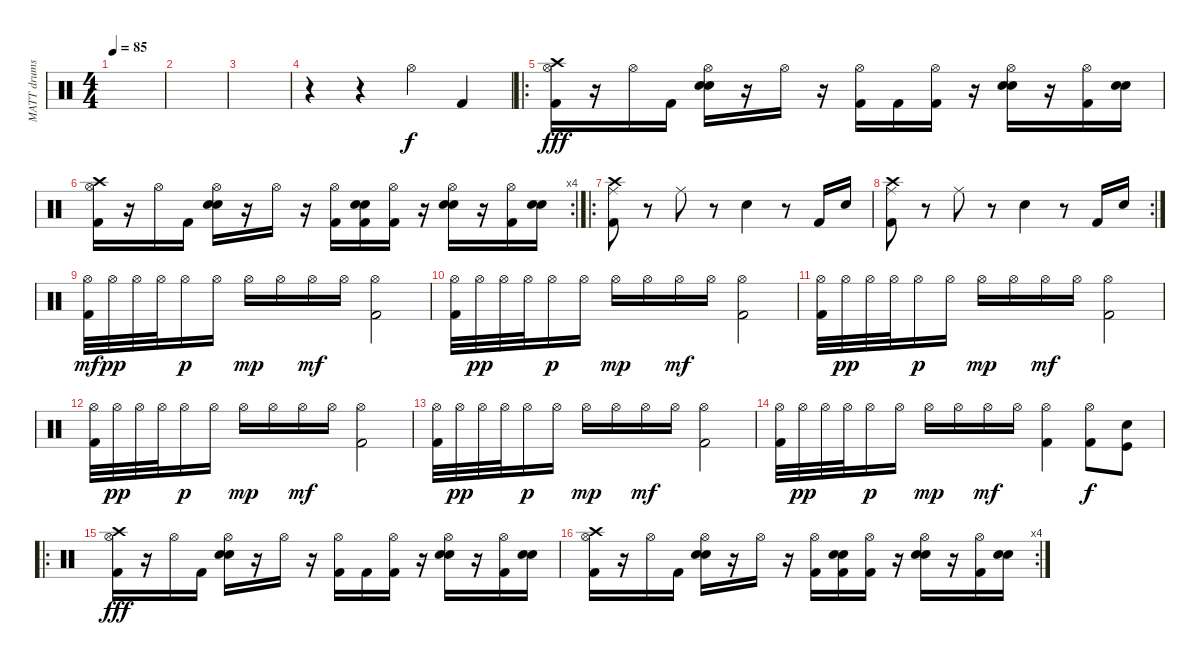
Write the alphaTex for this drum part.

\track ("MATT drums" "MATT drums") {instrument percussion}
\staff {score}
\articulation defaults
\ts (4 4)
\tempo 85
\clef neutral
\ks c
|
|
|
r.4 r.4 "Hi-Hat (open)".4 "Kick (hit) 2".4 |
\ro
("Crash high (hit)" "Hi-Hat (open)" "Kick (hit) 2").16{dy fff} r.16 "Hi-Hat (open)".16 "Kick (hit) 2".16 ("Hi-Hat (open)" "Electric Snare (hit)" "Snare (hit) 2").16 r.16 "Hi-Hat (open)".16 r.16 ("Hi-Hat (open)" "Kick (hit) 2").16 "Kick (hit) 2".16 ("Hi-Hat (open)" "Kick (hit) 2").16 r.16 ("Hi-Hat (open)" "Electric Snare (hit)" "Snare (hit) 2").16 r.16 ("Hi-Hat (open)" "Kick (hit) 2").16 ("Electric Snare (hit)" "Snare (hit) 2").16 |
\rc 4
("Crash high (hit)" "Hi-Hat (open)" "Kick (hit) 2").16 r.16 "Hi-Hat (open)".16 "Kick (hit) 2".16 ("Hi-Hat (open)" "Electric Snare (hit)" "Snare (hit) 2").16 r.16 "Hi-Hat (open)".16 r.16 ("Hi-Hat (open)" "Kick (hit) 2").16 ("Electric Snare (hit)" "Snare (hit) 2" "Kick (hit) 2").16 ("Hi-Hat (open)" "Kick (hit) 2").16 r.16 ("Hi-Hat (open)" "Electric Snare (hit)" "Snare (hit) 2").16 r.16 ("Hi-Hat (open)" "Kick (hit) 2").16 ("Electric Snare (hit)" "Snare (hit) 2").16 |
\ro
("Ride (middle)" "Crash high (hit)" "Kick (hit) 2").8 r.8 "Ride (middle)".8 r.8 "Snare (hit) 2".4 r.8 "Kick (hit) 2".16 "Snare (hit) 2".16 |
\rc 2
("Ride (middle)" "Crash high (hit)" "Kick (hit) 2").8 r.8 "Ride (middle)".8 r.8 "Snare (hit) 2".4 r.8 "Kick (hit) 2".16 "Snare (hit) 2".16 |
("Hi-Hat (open)" "Kick (hit) 2").32{dy mf} "Hi-Hat (open)".32{dy pp} "Hi-Hat (open)".32 "Hi-Hat (open)".32 "Hi-Hat (open)".16{dy p} "Hi-Hat (open)".16 "Hi-Hat (open)".16{dy mp} "Hi-Hat (open)".16 "Hi-Hat (open)".16{dy mf} "Hi-Hat (open)".16 ("Hi-Hat (open)" "Kick (hit) 2").2 |
("Hi-Hat (open)" "Kick (hit) 2").32 "Hi-Hat (open)".32{dy pp} "Hi-Hat (open)".32 "Hi-Hat (open)".32 "Hi-Hat (open)".16{dy p} "Hi-Hat (open)".16 "Hi-Hat (open)".16{dy mp} "Hi-Hat (open)".16 "Hi-Hat (open)".16{dy mf} "Hi-Hat (open)".16 ("Hi-Hat (open)" "Kick (hit) 2").2 |
("Hi-Hat (open)" "Kick (hit) 2").32 "Hi-Hat (open)".32{dy pp} "Hi-Hat (open)".32 "Hi-Hat (open)".32 "Hi-Hat (open)".16{dy p} "Hi-Hat (open)".16 "Hi-Hat (open)".16{dy mp} "Hi-Hat (open)".16 "Hi-Hat (open)".16{dy mf} "Hi-Hat (open)".16 ("Hi-Hat (open)" "Kick (hit) 2").2 |
("Hi-Hat (open)" "Kick (hit) 2").32 "Hi-Hat (open)".32{dy pp} "Hi-Hat (open)".32 "Hi-Hat (open)".32 "Hi-Hat (open)".16{dy p} "Hi-Hat (open)".16 "Hi-Hat (open)".16{dy mp} "Hi-Hat (open)".16 "Hi-Hat (open)".16{dy mf} "Hi-Hat (open)".16 ("Hi-Hat (open)" "Kick (hit) 2").2 |
("Hi-Hat (open)" "Kick (hit) 2").32 "Hi-Hat (open)".32{dy pp} "Hi-Hat (open)".32 "Hi-Hat (open)".32 "Hi-Hat (open)".16{dy p} "Hi-Hat (open)".16 "Hi-Hat (open)".16{dy mp} "Hi-Hat (open)".16 "Hi-Hat (open)".16{dy mf} "Hi-Hat (open)".16 ("Hi-Hat (open)" "Kick (hit) 2").2 |
("Hi-Hat (open)" "Kick (hit) 2").32 "Hi-Hat (open)".32{dy pp} "Hi-Hat (open)".32 "Hi-Hat (open)".32 "Hi-Hat (open)".16{dy p} "Hi-Hat (open)".16 "Hi-Hat (open)".16{dy mp} "Hi-Hat (open)".16 "Hi-Hat (open)".16{dy mf} "Hi-Hat (open)".16 ("Hi-Hat (open)" "Kick (hit) 2").4 ("Hi-Hat (open)" "Kick (hit) 2").8{dy f} ("Snare (hit) 2" "Kick (hit)").8 |
\ro
("Crash high (hit)" "Hi-Hat (open)" "Kick (hit) 2").16{dy fff} r.16 "Hi-Hat (open)".16 "Kick (hit) 2".16 ("Hi-Hat (open)" "Electric Snare (hit)" "Snare (hit) 2").16 r.16 "Hi-Hat (open)".16 r.16 ("Hi-Hat (open)" "Kick (hit) 2").16 "Kick (hit) 2".16 ("Hi-Hat (open)" "Kick (hit) 2").16 r.16 ("Hi-Hat (open)" "Electric Snare (hit)" "Snare (hit) 2").16 r.16 ("Hi-Hat (open)" "Kick (hit) 2").16 ("Electric Snare (hit)" "Snare (hit) 2").16 |
\rc 4
("Crash high (hit)" "Hi-Hat (open)" "Kick (hit) 2").16 r.16 "Hi-Hat (open)".16 "Kick (hit) 2".16 ("Hi-Hat (open)" "Electric Snare (hit)" "Snare (hit) 2").16 r.16 "Hi-Hat (open)".16 r.16 ("Hi-Hat (open)" "Kick (hit) 2").16 ("Electric Snare (hit)" "Snare (hit) 2" "Kick (hit) 2").16 ("Hi-Hat (open)" "Kick (hit) 2").16 r.16 ("Hi-Hat (open)" "Electric Snare (hit)" "Snare (hit) 2").16 r.16 ("Hi-Hat (open)" "Kick (hit) 2").16 ("Electric Snare (hit)" "Snare (hit) 2").16
